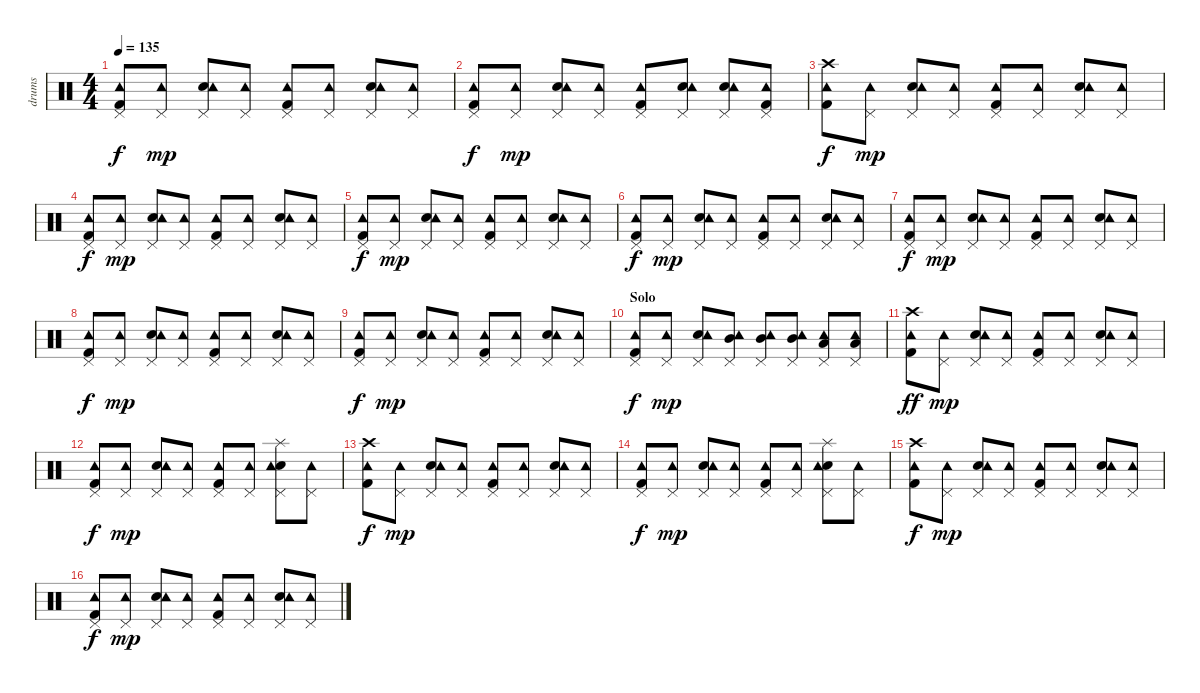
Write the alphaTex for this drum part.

\track ("drums" "drums") {instrument percussion}
\staff {score}
\articulation defaults
\ts (4 4)
\tempo 135
\clef neutral
\ks c
("Kick (hit) 2" "Pedal Hi-Hat (hit)" "Tambourine (hit)").8{dy f} ("Pedal Hi-Hat (hit)" "Tambourine (hit)").8{dy mp} ("Electric Snare (hit)" "Pedal Hi-Hat (hit)" "Tambourine (hit)").8 ("Pedal Hi-Hat (hit)" "Tambourine (hit)").8 ("Kick (hit) 2" "Pedal Hi-Hat (hit)" "Tambourine (hit)").8 ("Pedal Hi-Hat (hit)" "Tambourine (hit)").8 ("Electric Snare (hit)" "Pedal Hi-Hat (hit)" "Tambourine (hit)").8 ("Pedal Hi-Hat (hit)" "Tambourine (hit)").8 |
("Kick (hit) 2" "Pedal Hi-Hat (hit)" "Tambourine (hit)").8{dy f} ("Pedal Hi-Hat (hit)" "Tambourine (hit)").8{dy mp} ("Electric Snare (hit)" "Pedal Hi-Hat (hit)" "Tambourine (hit)").8 ("Pedal Hi-Hat (hit)" "Tambourine (hit)").8 ("Kick (hit) 2" "Pedal Hi-Hat (hit)" "Tambourine (hit)").8 ("Electric Snare (hit)" "Pedal Hi-Hat (hit)" "Tambourine (hit)").8 ("Electric Snare (hit)" "Pedal Hi-Hat (hit)" "Tambourine (hit)").8 ("Kick (hit) 2" "Pedal Hi-Hat (hit)" "Tambourine (hit)").8 |
("Kick (hit) 2" "Crash high (hit)" "Tambourine (hit)").8{dy f} ("Pedal Hi-Hat (hit)" "Tambourine (hit)").8{dy mp} ("Electric Snare (hit)" "Pedal Hi-Hat (hit)" "Tambourine (hit)").8 ("Pedal Hi-Hat (hit)" "Tambourine (hit)").8 ("Kick (hit) 2" "Pedal Hi-Hat (hit)" "Tambourine (hit)").8 ("Pedal Hi-Hat (hit)" "Tambourine (hit)").8 ("Electric Snare (hit)" "Pedal Hi-Hat (hit)" "Tambourine (hit)").8 ("Pedal Hi-Hat (hit)" "Tambourine (hit)").8 |
("Kick (hit) 2" "Pedal Hi-Hat (hit)" "Tambourine (hit)").8{dy f} ("Pedal Hi-Hat (hit)" "Tambourine (hit)").8{dy mp} ("Electric Snare (hit)" "Pedal Hi-Hat (hit)" "Tambourine (hit)").8 ("Pedal Hi-Hat (hit)" "Tambourine (hit)").8 ("Kick (hit) 2" "Pedal Hi-Hat (hit)" "Tambourine (hit)").8 ("Pedal Hi-Hat (hit)" "Tambourine (hit)").8 ("Electric Snare (hit)" "Pedal Hi-Hat (hit)" "Tambourine (hit)").8 ("Pedal Hi-Hat (hit)" "Tambourine (hit)").8 |
("Kick (hit) 2" "Pedal Hi-Hat (hit)" "Tambourine (hit)").8{dy f} ("Pedal Hi-Hat (hit)" "Tambourine (hit)").8{dy mp} ("Electric Snare (hit)" "Pedal Hi-Hat (hit)" "Tambourine (hit)").8 ("Pedal Hi-Hat (hit)" "Tambourine (hit)").8 ("Kick (hit) 2" "Pedal Hi-Hat (hit)" "Tambourine (hit)").8 ("Pedal Hi-Hat (hit)" "Tambourine (hit)").8 ("Electric Snare (hit)" "Pedal Hi-Hat (hit)" "Tambourine (hit)").8 ("Pedal Hi-Hat (hit)" "Tambourine (hit)").8 |
("Kick (hit) 2" "Pedal Hi-Hat (hit)" "Tambourine (hit)").8{dy f} ("Pedal Hi-Hat (hit)" "Tambourine (hit)").8{dy mp} ("Electric Snare (hit)" "Pedal Hi-Hat (hit)" "Tambourine (hit)").8 ("Pedal Hi-Hat (hit)" "Tambourine (hit)").8 ("Kick (hit) 2" "Pedal Hi-Hat (hit)" "Tambourine (hit)").8 ("Pedal Hi-Hat (hit)" "Tambourine (hit)").8 ("Electric Snare (hit)" "Pedal Hi-Hat (hit)" "Tambourine (hit)").8 ("Pedal Hi-Hat (hit)" "Tambourine (hit)").8 |
("Kick (hit) 2" "Pedal Hi-Hat (hit)" "Tambourine (hit)").8{dy f} ("Pedal Hi-Hat (hit)" "Tambourine (hit)").8{dy mp} ("Electric Snare (hit)" "Pedal Hi-Hat (hit)" "Tambourine (hit)").8 ("Pedal Hi-Hat (hit)" "Tambourine (hit)").8 ("Kick (hit) 2" "Pedal Hi-Hat (hit)" "Tambourine (hit)").8 ("Pedal Hi-Hat (hit)" "Tambourine (hit)").8 ("Electric Snare (hit)" "Pedal Hi-Hat (hit)" "Tambourine (hit)").8 ("Pedal Hi-Hat (hit)" "Tambourine (hit)").8 |
("Kick (hit) 2" "Pedal Hi-Hat (hit)" "Tambourine (hit)").8{dy f} ("Pedal Hi-Hat (hit)" "Tambourine (hit)").8{dy mp} ("Electric Snare (hit)" "Pedal Hi-Hat (hit)" "Tambourine (hit)").8 ("Pedal Hi-Hat (hit)" "Tambourine (hit)").8 ("Kick (hit) 2" "Pedal Hi-Hat (hit)" "Tambourine (hit)").8 ("Pedal Hi-Hat (hit)" "Tambourine (hit)").8 ("Electric Snare (hit)" "Pedal Hi-Hat (hit)" "Tambourine (hit)").8 ("Pedal Hi-Hat (hit)" "Tambourine (hit)").8 |
("Kick (hit) 2" "Pedal Hi-Hat (hit)" "Tambourine (hit)").8{dy f} ("Pedal Hi-Hat (hit)" "Tambourine (hit)").8{dy mp} ("Electric Snare (hit)" "Pedal Hi-Hat (hit)" "Tambourine (hit)").8 ("Pedal Hi-Hat (hit)" "Tambourine (hit)").8 ("Kick (hit) 2" "Pedal Hi-Hat (hit)" "Tambourine (hit)").8 ("Pedal Hi-Hat (hit)" "Tambourine (hit)").8 ("Electric Snare (hit)" "Pedal Hi-Hat (hit)" "Tambourine (hit)").8 ("Pedal Hi-Hat (hit)" "Tambourine (hit)").8 |
\section ("" "Solo")
("Kick (hit) 2" "Pedal Hi-Hat (hit)" "Tambourine (hit)").8{dy f} ("Pedal Hi-Hat (hit)" "Tambourine (hit)").8{dy mp} ("Electric Snare (hit)" "Pedal Hi-Hat (hit)" "Tambourine (hit)").8 ("Mid Tom (hit)" "Pedal Hi-Hat (hit)" "Tambourine (hit)").8 ("Mid Tom (hit)" "Pedal Hi-Hat (hit)" "Tambourine (hit)").8 ("Mid Tom (hit)" "Pedal Hi-Hat (hit)" "Tambourine (hit)").8 ("Low Floor Tom (hit)" "Pedal Hi-Hat (hit)" "Tambourine (hit)").8 ("Low Floor Tom (hit)" "Pedal Hi-Hat (hit)" "Tambourine (hit)").8 |
("Kick (hit) 2" "Crash high (hit)" "Tambourine (hit)").8{dy ff} ("Pedal Hi-Hat (hit)" "Tambourine (hit)").8{dy mp} ("Electric Snare (hit)" "Pedal Hi-Hat (hit)" "Tambourine (hit)").8 ("Pedal Hi-Hat (hit)" "Tambourine (hit)").8 ("Kick (hit) 2" "Pedal Hi-Hat (hit)" "Tambourine (hit)").8 ("Pedal Hi-Hat (hit)" "Tambourine (hit)").8 ("Electric Snare (hit)" "Pedal Hi-Hat (hit)" "Tambourine (hit)").8 ("Pedal Hi-Hat (hit)" "Tambourine (hit)").8 |
("Kick (hit) 2" "Pedal Hi-Hat (hit)" "Tambourine (hit)").8{dy f} ("Pedal Hi-Hat (hit)" "Tambourine (hit)").8{dy mp} ("Electric Snare (hit)" "Pedal Hi-Hat (hit)" "Tambourine (hit)").8 ("Pedal Hi-Hat (hit)" "Tambourine (hit)").8 ("Kick (hit) 2" "Pedal Hi-Hat (hit)" "Tambourine (hit)").8 ("Pedal Hi-Hat (hit)" "Tambourine (hit)").8 ("Electric Snare (hit)" "Splash (hit)" "Pedal Hi-Hat (hit)" "Tambourine (hit)").8 ("Pedal Hi-Hat (hit)" "Tambourine (hit)").8 |
("Kick (hit) 2" "Crash high (hit)" "Tambourine (hit)").8{dy f} ("Pedal Hi-Hat (hit)" "Tambourine (hit)").8{dy mp} ("Electric Snare (hit)" "Pedal Hi-Hat (hit)" "Tambourine (hit)").8 ("Pedal Hi-Hat (hit)" "Tambourine (hit)").8 ("Kick (hit) 2" "Pedal Hi-Hat (hit)" "Tambourine (hit)").8 ("Pedal Hi-Hat (hit)" "Tambourine (hit)").8 ("Electric Snare (hit)" "Pedal Hi-Hat (hit)" "Tambourine (hit)").8 ("Pedal Hi-Hat (hit)" "Tambourine (hit)").8 |
("Kick (hit) 2" "Pedal Hi-Hat (hit)" "Tambourine (hit)").8{dy f} ("Pedal Hi-Hat (hit)" "Tambourine (hit)").8{dy mp} ("Electric Snare (hit)" "Pedal Hi-Hat (hit)" "Tambourine (hit)").8 ("Pedal Hi-Hat (hit)" "Tambourine (hit)").8 ("Kick (hit) 2" "Pedal Hi-Hat (hit)" "Tambourine (hit)").8 ("Pedal Hi-Hat (hit)" "Tambourine (hit)").8 ("Electric Snare (hit)" "Splash (hit)" "Pedal Hi-Hat (hit)" "Tambourine (hit)").8 ("Pedal Hi-Hat (hit)" "Tambourine (hit)").8 |
("Kick (hit) 2" "Crash high (hit)" "Tambourine (hit)").8{dy f} ("Pedal Hi-Hat (hit)" "Tambourine (hit)").8{dy mp} ("Electric Snare (hit)" "Pedal Hi-Hat (hit)" "Tambourine (hit)").8 ("Pedal Hi-Hat (hit)" "Tambourine (hit)").8 ("Kick (hit) 2" "Pedal Hi-Hat (hit)" "Tambourine (hit)").8 ("Pedal Hi-Hat (hit)" "Tambourine (hit)").8 ("Electric Snare (hit)" "Pedal Hi-Hat (hit)" "Tambourine (hit)").8 ("Pedal Hi-Hat (hit)" "Tambourine (hit)").8 |
("Kick (hit) 2" "Pedal Hi-Hat (hit)" "Tambourine (hit)").8{dy f} ("Pedal Hi-Hat (hit)" "Tambourine (hit)").8{dy mp} ("Electric Snare (hit)" "Pedal Hi-Hat (hit)" "Tambourine (hit)").8 ("Pedal Hi-Hat (hit)" "Tambourine (hit)").8 ("Kick (hit) 2" "Pedal Hi-Hat (hit)" "Tambourine (hit)").8 ("Pedal Hi-Hat (hit)" "Tambourine (hit)").8 ("Electric Snare (hit)" "Pedal Hi-Hat (hit)" "Tambourine (hit)").8 ("Pedal Hi-Hat (hit)" "Tambourine (hit)").8
